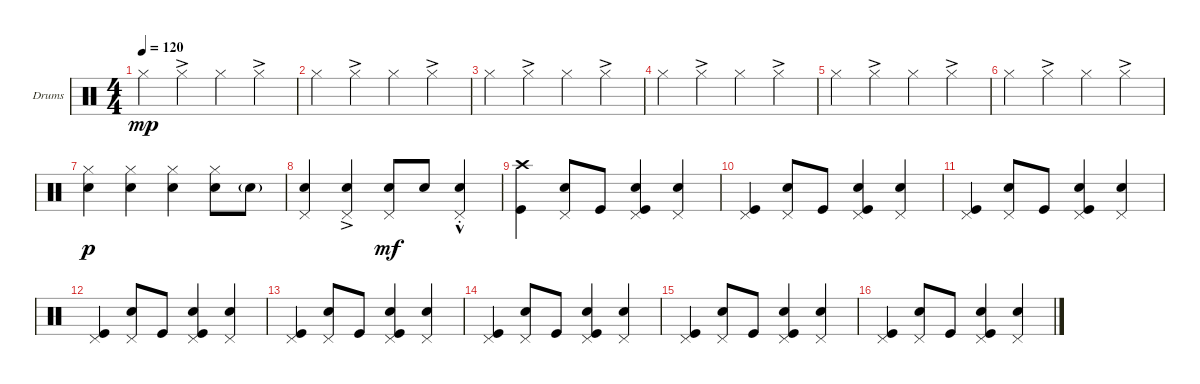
\defaultSystemsLayout 4
\bracketExtendMode groupsimilarinstruments
\firstSystemTrackNameOrientation horizontal
\otherSystemsTrackNameOrientation horizontal
\track ("Drumkit" "Drums") {instrument percussion}
\staff {score}
\articulation defaults
\ts (4 4)
\tempo 120
\clef neutral
\ks c "Hi-Hat (closed)".4{dy mp} "Hi-Hat (closed)"{ac}.4 "Hi-Hat (closed)".4 "Hi-Hat (closed)"{ac}.4
|
"Hi-Hat (closed)".4 "Hi-Hat (closed)"{ac}.4 "Hi-Hat (closed)".4 "Hi-Hat (closed)"{ac}.4 |
"Hi-Hat (closed)".4 "Hi-Hat (closed)"{ac}.4 "Hi-Hat (closed)".4 "Hi-Hat (closed)"{ac}.4 |
"Hi-Hat (closed)".4 "Hi-Hat (closed)"{ac}.4 "Hi-Hat (closed)".4 "Hi-Hat (closed)"{ac}.4 |
"Hi-Hat (closed)".4 "Hi-Hat (closed)"{ac}.4 "Hi-Hat (closed)".4 "Hi-Hat (closed)"{ac}.4 |
"Hi-Hat (closed)".4 "Hi-Hat (closed)"{ac}.4 "Hi-Hat (closed)".4 "Hi-Hat (closed)"{ac}.4 |
("Snare (hit) 2" "Hi-Hat (closed)").4{dy p} ("Snare (hit) 2" "Hi-Hat (closed)").4 ("Snare (hit) 2" "Hi-Hat (closed)").4 ("Snare (hit) 2" "Hi-Hat (closed)").8 "Snare (hit) 2"{g}.8 |
("Pedal Hi-Hat (hit)" "Snare (hit) 2").4 ("Snare (hit) 2"{ac} "Pedal Hi-Hat (hit)").4 ("Snare (hit) 2" "Pedal Hi-Hat (hit)").8{dy mf} "Snare (hit) 2".8 ("Snare (hit) 2"{hac st} "Pedal Hi-Hat (hit)"{hac}).4 |
("Crash high (hit)" "Kick (hit)").4 ("Snare (hit) 2" "Pedal Hi-Hat (hit)").8 "Kick (hit)".8 ("Snare (hit) 2" "Kick (hit)" "Pedal Hi-Hat (hit)").4 ("Snare (hit) 2" "Pedal Hi-Hat (hit)").4 |
("Kick (hit)" "Pedal Hi-Hat (hit)").4 ("Snare (hit) 2" "Pedal Hi-Hat (hit)").8 "Kick (hit)".8 ("Snare (hit) 2" "Kick (hit)" "Pedal Hi-Hat (hit)").4 ("Snare (hit) 2" "Pedal Hi-Hat (hit)").4 |
("Kick (hit)" "Pedal Hi-Hat (hit)").4 ("Snare (hit) 2" "Pedal Hi-Hat (hit)").8 "Kick (hit)".8 ("Snare (hit) 2" "Kick (hit)" "Pedal Hi-Hat (hit)").4 ("Snare (hit) 2" "Pedal Hi-Hat (hit)").4 |
("Kick (hit)" "Pedal Hi-Hat (hit)").4 ("Snare (hit) 2" "Pedal Hi-Hat (hit)").8 "Kick (hit)".8 ("Snare (hit) 2" "Kick (hit)" "Pedal Hi-Hat (hit)").4 ("Snare (hit) 2" "Pedal Hi-Hat (hit)").4 |
("Kick (hit)" "Pedal Hi-Hat (hit)").4 ("Snare (hit) 2" "Pedal Hi-Hat (hit)").8 "Kick (hit)".8 ("Snare (hit) 2" "Kick (hit)" "Pedal Hi-Hat (hit)").4 ("Snare (hit) 2" "Pedal Hi-Hat (hit)").4 |
("Kick (hit)" "Pedal Hi-Hat (hit)").4 ("Snare (hit) 2" "Pedal Hi-Hat (hit)").8 "Kick (hit)".8 ("Snare (hit) 2" "Kick (hit)" "Pedal Hi-Hat (hit)").4 ("Snare (hit) 2" "Pedal Hi-Hat (hit)").4 |
("Kick (hit)" "Pedal Hi-Hat (hit)").4 ("Snare (hit) 2" "Pedal Hi-Hat (hit)").8 "Kick (hit)".8 ("Snare (hit) 2" "Kick (hit)" "Pedal Hi-Hat (hit)").4 ("Snare (hit) 2" "Pedal Hi-Hat (hit)").4 |
("Kick (hit)" "Pedal Hi-Hat (hit)").4 ("Snare (hit) 2" "Pedal Hi-Hat (hit)").8 "Kick (hit)".8 ("Snare (hit) 2" "Kick (hit)" "Pedal Hi-Hat (hit)").4 ("Snare (hit) 2" "Pedal Hi-Hat (hit)").4
